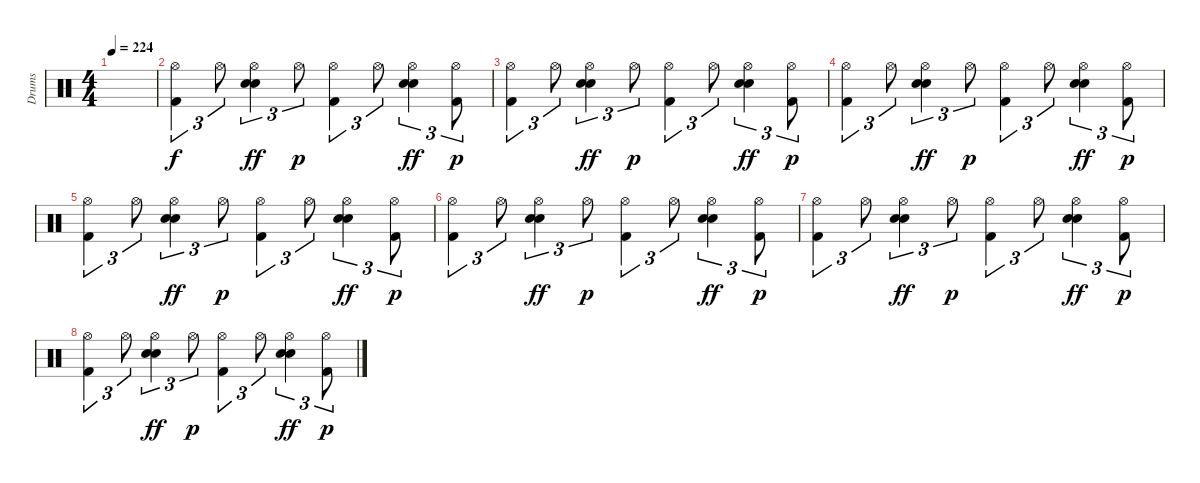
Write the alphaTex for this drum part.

\track ("Drums" "Drums") {instrument percussion}
\staff {score}
\articulation defaults
\ts (4 4)
\tempo 224
\clef neutral
\ks c
|
("Hi-Hat (open)" "Kick (hit) 2").4{tu (3 2)} "Hi-Hat (open)".8{tu (3 2)} ("Hand Clap (hit)" "Hi-Hat (open)" "Snare (hit) 2").4{tu (3 2) dy ff} "Hi-Hat (open)".8{tu (3 2) dy p} ("Hi-Hat (open)" "Kick (hit) 2").4{tu (3 2)} "Hi-Hat (open)".8{tu (3 2)} ("Hand Clap (hit)" "Hi-Hat (open)" "Snare (hit) 2").4{tu (3 2) dy ff} ("Hi-Hat (open)" "Kick (hit) 2").8{tu (3 2) dy p} |
("Hi-Hat (open)" "Kick (hit) 2").4{tu (3 2)} "Hi-Hat (open)".8{tu (3 2)} ("Hand Clap (hit)" "Hi-Hat (open)" "Snare (hit) 2").4{tu (3 2) dy ff} "Hi-Hat (open)".8{tu (3 2) dy p} ("Hi-Hat (open)" "Kick (hit) 2").4{tu (3 2)} "Hi-Hat (open)".8{tu (3 2)} ("Hand Clap (hit)" "Hi-Hat (open)" "Snare (hit) 2").4{tu (3 2) dy ff} ("Hi-Hat (open)" "Kick (hit) 2").8{tu (3 2) dy p} |
("Hi-Hat (open)" "Kick (hit) 2").4{tu (3 2)} "Hi-Hat (open)".8{tu (3 2)} ("Hand Clap (hit)" "Hi-Hat (open)" "Snare (hit) 2").4{tu (3 2) dy ff} "Hi-Hat (open)".8{tu (3 2) dy p} ("Hi-Hat (open)" "Kick (hit) 2").4{tu (3 2)} "Hi-Hat (open)".8{tu (3 2)} ("Hand Clap (hit)" "Hi-Hat (open)" "Snare (hit) 2").4{tu (3 2) dy ff} ("Hi-Hat (open)" "Kick (hit) 2").8{tu (3 2) dy p} |
("Hi-Hat (open)" "Kick (hit) 2").4{tu (3 2)} "Hi-Hat (open)".8{tu (3 2)} ("Hand Clap (hit)" "Hi-Hat (open)" "Snare (hit) 2").4{tu (3 2) dy ff} "Hi-Hat (open)".8{tu (3 2) dy p} ("Hi-Hat (open)" "Kick (hit) 2").4{tu (3 2)} "Hi-Hat (open)".8{tu (3 2)} ("Hand Clap (hit)" "Hi-Hat (open)" "Snare (hit) 2").4{tu (3 2) dy ff} ("Hi-Hat (open)" "Kick (hit) 2").8{tu (3 2) dy p} |
("Hi-Hat (open)" "Kick (hit) 2").4{tu (3 2)} "Hi-Hat (open)".8{tu (3 2)} ("Hand Clap (hit)" "Hi-Hat (open)" "Snare (hit) 2").4{tu (3 2) dy ff} "Hi-Hat (open)".8{tu (3 2) dy p} ("Hi-Hat (open)" "Kick (hit) 2").4{tu (3 2)} "Hi-Hat (open)".8{tu (3 2)} ("Hand Clap (hit)" "Hi-Hat (open)" "Snare (hit) 2").4{tu (3 2) dy ff} ("Hi-Hat (open)" "Kick (hit) 2").8{tu (3 2) dy p} |
("Hi-Hat (open)" "Kick (hit) 2").4{tu (3 2)} "Hi-Hat (open)".8{tu (3 2)} ("Hand Clap (hit)" "Hi-Hat (open)" "Snare (hit) 2").4{tu (3 2) dy ff} "Hi-Hat (open)".8{tu (3 2) dy p} ("Hi-Hat (open)" "Kick (hit) 2").4{tu (3 2)} "Hi-Hat (open)".8{tu (3 2)} ("Hand Clap (hit)" "Hi-Hat (open)" "Snare (hit) 2").4{tu (3 2) dy ff} ("Hi-Hat (open)" "Kick (hit) 2").8{tu (3 2) dy p} |
("Hi-Hat (open)" "Kick (hit) 2").4{tu (3 2)} "Hi-Hat (open)".8{tu (3 2)} ("Hand Clap (hit)" "Hi-Hat (open)" "Snare (hit) 2").4{tu (3 2) dy ff} "Hi-Hat (open)".8{tu (3 2) dy p} ("Hi-Hat (open)" "Kick (hit) 2").4{tu (3 2)} "Hi-Hat (open)".8{tu (3 2)} ("Hand Clap (hit)" "Hi-Hat (open)" "Snare (hit) 2").4{tu (3 2) dy ff} ("Hi-Hat (open)" "Kick (hit) 2").8{tu (3 2) dy p}
